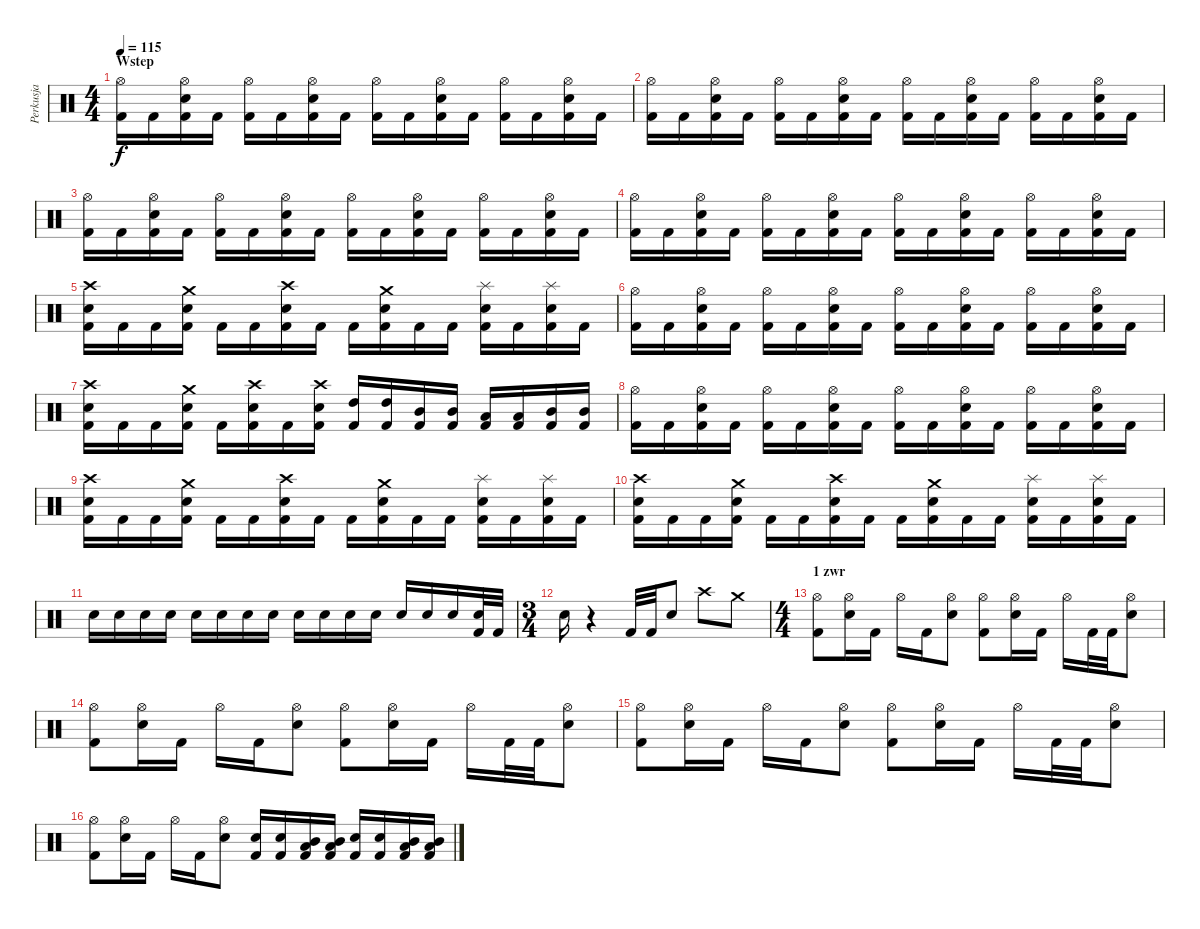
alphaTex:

\track ("Perkusja" "Perkusja") {instrument percussion}
\staff {score}
\articulation defaults
\ts (4 4)
\section ("" "Wstep")
\tempo 115
\clef neutral
\ks c
("Hi-Hat (open)" "Kick (hit) 2").16{dy f volume 0} "Kick (hit) 2".16{volume 13} ("Hi-Hat (open)" "Snare (hit) 2" "Kick (hit) 2").16 "Kick (hit) 2".16 ("Hi-Hat (open)" "Kick (hit) 2").16 "Kick (hit) 2".16 ("Hi-Hat (open)" "Snare (hit) 2" "Kick (hit) 2").16 "Kick (hit) 2".16 ("Hi-Hat (open)" "Kick (hit) 2").16 "Kick (hit) 2".16 ("Hi-Hat (open)" "Snare (hit) 2" "Kick (hit) 2").16 "Kick (hit) 2".16 ("Hi-Hat (open)" "Kick (hit) 2").16 "Kick (hit) 2".16 ("Hi-Hat (open)" "Snare (hit) 2" "Kick (hit) 2").16 "Kick (hit) 2".16 |
("Hi-Hat (open)" "Kick (hit) 2").16 "Kick (hit) 2".16 ("Hi-Hat (open)" "Snare (hit) 2" "Kick (hit) 2").16 "Kick (hit) 2".16 ("Hi-Hat (open)" "Kick (hit) 2").16 "Kick (hit) 2".16 ("Hi-Hat (open)" "Snare (hit) 2" "Kick (hit) 2").16 "Kick (hit) 2".16 ("Hi-Hat (open)" "Kick (hit) 2").16 "Kick (hit) 2".16 ("Hi-Hat (open)" "Snare (hit) 2" "Kick (hit) 2").16 "Kick (hit) 2".16 ("Hi-Hat (open)" "Kick (hit) 2").16 "Kick (hit) 2".16 ("Hi-Hat (open)" "Snare (hit) 2" "Kick (hit) 2").16 "Kick (hit) 2".16 |
("Hi-Hat (open)" "Kick (hit) 2").16 "Kick (hit) 2".16 ("Hi-Hat (open)" "Snare (hit) 2" "Kick (hit) 2").16 "Kick (hit) 2".16 ("Hi-Hat (open)" "Kick (hit) 2").16 "Kick (hit) 2".16 ("Hi-Hat (open)" "Snare (hit) 2" "Kick (hit) 2").16 "Kick (hit) 2".16 ("Hi-Hat (open)" "Kick (hit) 2").16 "Kick (hit) 2".16 ("Hi-Hat (open)" "Snare (hit) 2" "Kick (hit) 2").16 "Kick (hit) 2".16 ("Hi-Hat (open)" "Kick (hit) 2").16 "Kick (hit) 2".16 ("Hi-Hat (open)" "Snare (hit) 2" "Kick (hit) 2").16 "Kick (hit) 2".16 |
("Hi-Hat (open)" "Kick (hit) 2").16 "Kick (hit) 2".16 ("Hi-Hat (open)" "Snare (hit) 2" "Kick (hit) 2").16 "Kick (hit) 2".16 ("Hi-Hat (open)" "Kick (hit) 2").16 "Kick (hit) 2".16 ("Hi-Hat (open)" "Snare (hit) 2" "Kick (hit) 2").16 "Kick (hit) 2".16 ("Hi-Hat (open)" "Kick (hit) 2").16 "Kick (hit) 2".16 ("Hi-Hat (open)" "Snare (hit) 2" "Kick (hit) 2").16 "Kick (hit) 2".16 ("Hi-Hat (open)" "Kick (hit) 2").16 "Kick (hit) 2".16 ("Hi-Hat (open)" "Snare (hit) 2" "Kick (hit) 2").16 "Kick (hit) 2".16 |
("Crash high (hit)" "Snare (hit) 2" "Kick (hit) 2").16 "Kick (hit) 2".16 "Kick (hit) 2".16 ("Crash medium (hit)" "Snare (hit) 2" "Kick (hit) 2").16 "Kick (hit) 2".16 "Kick (hit) 2".16 ("Crash high (hit)" "Snare (hit) 2" "Kick (hit) 2").16 "Kick (hit) 2".16 "Kick (hit) 2".16 ("Crash medium (hit)" "Snare (hit) 2" "Kick (hit) 2").16 "Kick (hit) 2".16 "Kick (hit) 2".16 ("Splash (hit)" "Snare (hit) 2" "Kick (hit) 2").16 "Kick (hit) 2".16 ("Splash (hit)" "Snare (hit) 2" "Kick (hit) 2").16 "Kick (hit) 2".16 |
("Hi-Hat (open)" "Kick (hit) 2").16 "Kick (hit) 2".16 ("Hi-Hat (open)" "Snare (hit) 2" "Kick (hit) 2").16 "Kick (hit) 2".16 ("Hi-Hat (open)" "Kick (hit) 2").16 "Kick (hit) 2".16 ("Hi-Hat (open)" "Snare (hit) 2" "Kick (hit) 2").16 "Kick (hit) 2".16 ("Hi-Hat (open)" "Kick (hit) 2").16 "Kick (hit) 2".16 ("Hi-Hat (open)" "Snare (hit) 2" "Kick (hit) 2").16 "Kick (hit) 2".16 ("Hi-Hat (open)" "Kick (hit) 2").16 "Kick (hit) 2".16 ("Hi-Hat (open)" "Snare (hit) 2" "Kick (hit) 2").16 "Kick (hit) 2".16 |
("Crash high (hit)" "Snare (hit) 2" "Kick (hit) 2").16 "Kick (hit) 2".16 "Kick (hit) 2".16 ("Crash medium (hit)" "Snare (hit) 2" "Kick (hit) 2").16 "Kick (hit) 2".16 ("Crash high (hit)" "Snare (hit) 2" "Kick (hit) 2").16 "Kick (hit) 2".16 ("Crash high (hit)" "Snare (hit) 2" "Kick (hit) 2").16 ("High Tom (hit)" "Kick (hit) 2").16 ("High Tom (hit)" "Kick (hit) 2").16 ("Mid Tom (hit)" "Kick (hit) 2").16 ("Mid Tom (hit)" "Kick (hit) 2").16 ("Low Tom (hit)" "Kick (hit) 2").16 ("Low Tom (hit)" "Kick (hit) 2").16 ("Mid Tom (hit)" "Kick (hit) 2").16 ("Mid Tom (hit)" "Kick (hit) 2").16 |
("Hi-Hat (open)" "Kick (hit) 2").16 "Kick (hit) 2".16 ("Hi-Hat (open)" "Snare (hit) 2" "Kick (hit) 2").16 "Kick (hit) 2".16 ("Hi-Hat (open)" "Kick (hit) 2").16 "Kick (hit) 2".16 ("Hi-Hat (open)" "Snare (hit) 2" "Kick (hit) 2").16 "Kick (hit) 2".16 ("Hi-Hat (open)" "Kick (hit) 2").16 "Kick (hit) 2".16 ("Hi-Hat (open)" "Snare (hit) 2" "Kick (hit) 2").16 "Kick (hit) 2".16 ("Hi-Hat (open)" "Kick (hit) 2").16 "Kick (hit) 2".16 ("Hi-Hat (open)" "Snare (hit) 2" "Kick (hit) 2").16 "Kick (hit) 2".16 |
("Crash high (hit)" "Snare (hit) 2" "Kick (hit) 2").16 "Kick (hit) 2".16 "Kick (hit) 2".16 ("Crash medium (hit)" "Snare (hit) 2" "Kick (hit) 2").16 "Kick (hit) 2".16 "Kick (hit) 2".16 ("Crash high (hit)" "Snare (hit) 2" "Kick (hit) 2").16 "Kick (hit) 2".16 "Kick (hit) 2".16 ("Crash medium (hit)" "Snare (hit) 2" "Kick (hit) 2").16 "Kick (hit) 2".16 "Kick (hit) 2".16 ("Splash (hit)" "Snare (hit) 2" "Kick (hit) 2").16 "Kick (hit) 2".16 ("Splash (hit)" "Snare (hit) 2" "Kick (hit) 2").16 "Kick (hit) 2".16 |
("Crash high (hit)" "Snare (hit) 2" "Kick (hit) 2").16 "Kick (hit) 2".16 "Kick (hit) 2".16 ("Crash medium (hit)" "Snare (hit) 2" "Kick (hit) 2").16 "Kick (hit) 2".16 "Kick (hit) 2".16 ("Crash high (hit)" "Snare (hit) 2" "Kick (hit) 2").16 "Kick (hit) 2".16 "Kick (hit) 2".16 ("Crash medium (hit)" "Snare (hit) 2" "Kick (hit) 2").16 "Kick (hit) 2".16 "Kick (hit) 2".16 ("Splash (hit)" "Snare (hit) 2" "Kick (hit) 2").16 "Kick (hit) 2".16 ("Splash (hit)" "Snare (hit) 2" "Kick (hit) 2").16 "Kick (hit) 2".16 |
"Snare (hit) 2".16 "Snare (hit) 2".16 "Snare (hit) 2".16 "Snare (hit) 2".16 "Snare (hit) 2".16 "Snare (hit) 2".16 "Snare (hit) 2".16 "Snare (hit) 2".16 "Snare (hit) 2".16 "Snare (hit) 2".16 "Snare (hit) 2".16 "Snare (hit) 2".16 "Snare (hit) 2".16 "Snare (hit) 2".16 "Snare (hit) 2".16 ("Snare (hit) 2" "Kick (hit) 2").32 "Kick (hit) 2".32 |
\ts (3 4)
"Snare (hit) 2".16 r.4 "Kick (hit) 2".32 "Kick (hit) 2".32 "Snare (hit) 2".8 "Crash high (hit)".8 "Crash medium (hit)".8 |
\ts (4 4)
\section ("" "1 zwr")
("Hi-Hat (open)" "Kick (hit) 2").8 ("Hi-Hat (open)" "Snare (hit) 2").16 "Kick (hit) 2".16 "Hi-Hat (open)".16 "Kick (hit) 2".16 ("Hi-Hat (open)" "Snare (hit) 2").8 ("Hi-Hat (open)" "Kick (hit) 2").8 ("Hi-Hat (open)" "Snare (hit) 2").16 "Kick (hit) 2".16 "Hi-Hat (open)".16 "Kick (hit) 2".32 "Kick (hit) 2".32 ("Hi-Hat (open)" "Snare (hit) 2").8 |
("Hi-Hat (open)" "Kick (hit) 2").8 ("Hi-Hat (open)" "Snare (hit) 2").16 "Kick (hit) 2".16 "Hi-Hat (open)".16 "Kick (hit) 2".16 ("Hi-Hat (open)" "Snare (hit) 2").8 ("Hi-Hat (open)" "Kick (hit) 2").8 ("Hi-Hat (open)" "Snare (hit) 2").16 "Kick (hit) 2".16 "Hi-Hat (open)".16 "Kick (hit) 2".32 "Kick (hit) 2".32 ("Hi-Hat (open)" "Snare (hit) 2").8 |
("Hi-Hat (open)" "Kick (hit) 2").8 ("Hi-Hat (open)" "Snare (hit) 2").16 "Kick (hit) 2".16 "Hi-Hat (open)".16 "Kick (hit) 2".16 ("Hi-Hat (open)" "Snare (hit) 2").8 ("Hi-Hat (open)" "Kick (hit) 2").8 ("Hi-Hat (open)" "Snare (hit) 2").16 "Kick (hit) 2".16 "Hi-Hat (open)".16 "Kick (hit) 2".32 "Kick (hit) 2".32 ("Hi-Hat (open)" "Snare (hit) 2").8 |
("Hi-Hat (open)" "Kick (hit) 2").8 ("Hi-Hat (open)" "Snare (hit) 2").16 "Kick (hit) 2".16 "Hi-Hat (open)".16 "Kick (hit) 2".16 ("Hi-Hat (open)" "Snare (hit) 2").8 ("Snare (hit) 2" "Kick (hit) 2").16 ("Snare (hit) 2" "Kick (hit) 2").16 ("Low Tom (hit)" "Mid Tom (hit)" "Kick (hit) 2").16 ("Low Tom (hit)" "Mid Tom (hit)" "Kick (hit) 2").16 ("Snare (hit) 2" "Kick (hit) 2").16 ("Snare (hit) 2" "Kick (hit) 2").16 ("Low Tom (hit)" "Mid Tom (hit)" "Kick (hit) 2").16 ("Low Tom (hit)" "Mid Tom (hit)" "Kick (hit) 2").16
